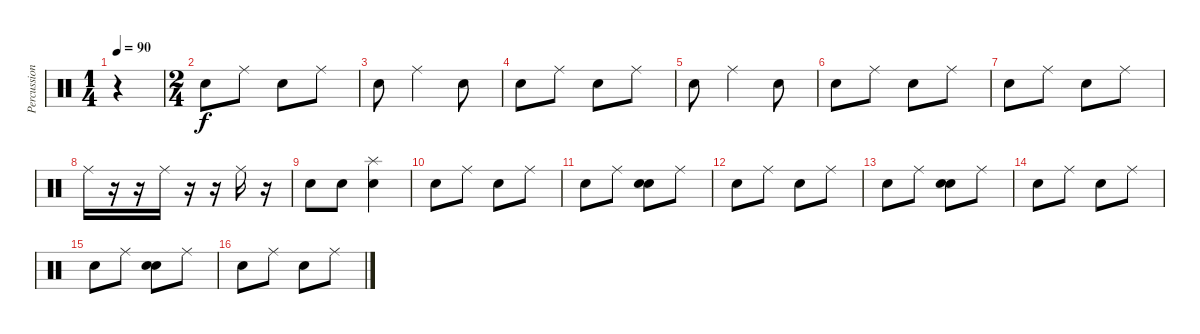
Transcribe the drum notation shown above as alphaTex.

\track ("Percussion" "Percussion") {instrument percussion}
\staff {score}
\articulation defaults
\ts (1 4)
\tempo 90
\clef neutral
\ks c
r.4{dy f} |
\ts (2 4)
"Electric Snare (hit)".8 "Ride (middle)".8 "Electric Snare (hit)".8 "Ride (middle)".8 |
"Electric Snare (hit)".8 "Ride (middle)".4 "Electric Snare (hit)".8 |
"Electric Snare (hit)".8 "Ride (middle)".8 "Electric Snare (hit)".8 "Ride (middle)".8 |
"Electric Snare (hit)".8 "Ride (middle)".4 "Electric Snare (hit)".8 |
"Electric Snare (hit)".8 "Ride (middle)".8 "Electric Snare (hit)".8 "Ride (middle)".8 |
"Electric Snare (hit)".8 "Ride (middle)".8 "Electric Snare (hit)".8 "Ride (middle)".8 |
"Ride (middle)".16 r.16 r.16 "Ride (middle)".16 r.16 r.16 "Ride (middle)".16 r.16 |
"Electric Snare (hit)".8 "Electric Snare (hit)".8 ("Splash (hit)" "Electric Snare (hit)").4 |
"Electric Snare (hit)".8 "Ride (middle)".8 "Electric Snare (hit)".8 "Ride (middle)".8 |
"Electric Snare (hit)".8 "Ride (middle)".8 ("Snare (hit) 2" "Electric Snare (hit)").8 "Ride (middle)".8 |
"Electric Snare (hit)".8 "Ride (middle)".8 "Electric Snare (hit)".8 "Ride (middle)".8 |
"Electric Snare (hit)".8 "Ride (middle)".8 ("Snare (hit) 2" "Electric Snare (hit)").8 "Ride (middle)".8 |
"Electric Snare (hit)".8 "Ride (middle)".8 "Electric Snare (hit)".8 "Ride (middle)".8 |
"Electric Snare (hit)".8 "Ride (middle)".8 ("Snare (hit) 2" "Electric Snare (hit)").8 "Ride (middle)".8 |
"Electric Snare (hit)".8 "Ride (middle)".8 "Electric Snare (hit)".8 "Ride (middle)".8
